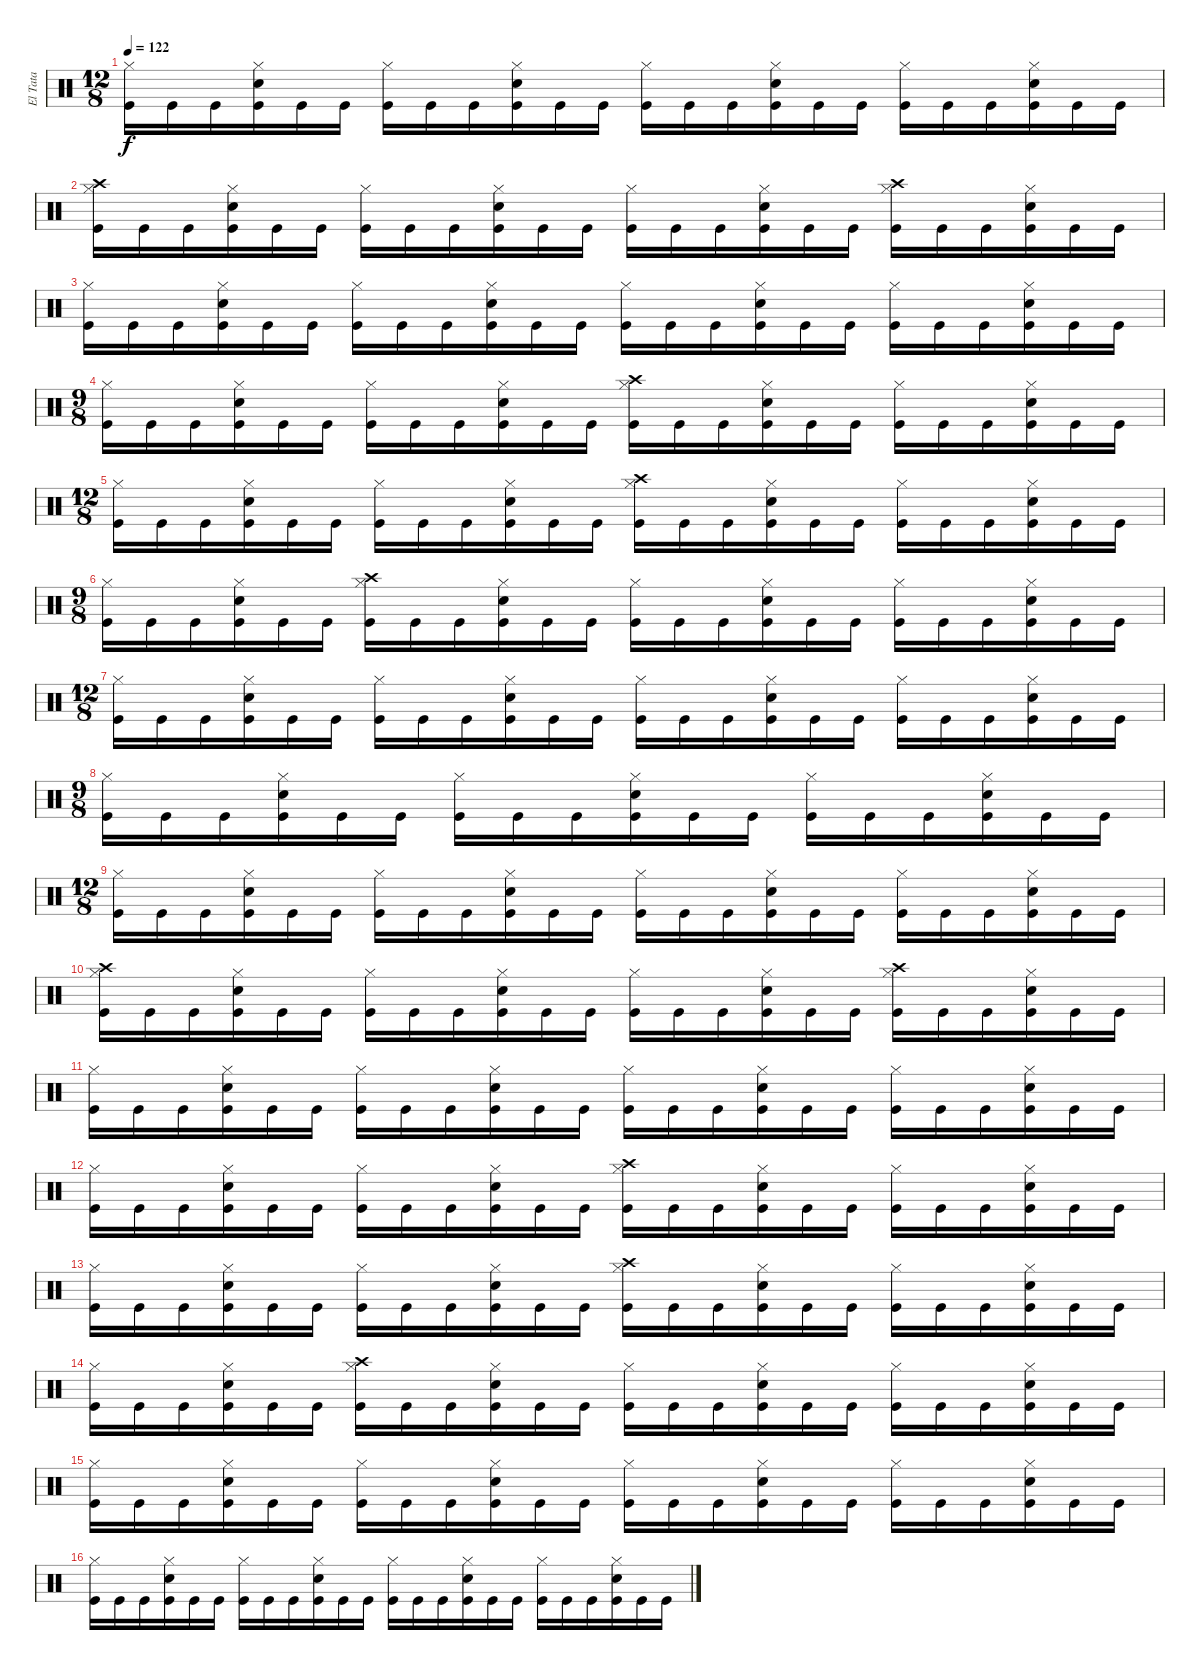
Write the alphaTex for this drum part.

\track ("El Tata" "El Tata") {instrument percussion}
\staff {score}
\articulation defaults
\ts (12 8)
\tempo 122
\clef neutral
\ks c
("Kick (hit)" "Hi-Hat (closed)").16{dy f} "Kick (hit)".16 "Kick (hit)".16 ("Kick (hit)" "Hi-Hat (closed)" "Electric Snare (hit)").16 "Kick (hit)".16 "Kick (hit)".16 ("Kick (hit)" "Hi-Hat (closed)").16 "Kick (hit)".16 "Kick (hit)".16 ("Kick (hit)" "Hi-Hat (closed)" "Electric Snare (hit)").16 "Kick (hit)".16 "Kick (hit)".16 ("Kick (hit)" "Hi-Hat (closed)").16 "Kick (hit)".16 "Kick (hit)".16 ("Kick (hit)" "Hi-Hat (closed)" "Electric Snare (hit)").16 "Kick (hit)".16 "Kick (hit)".16 ("Kick (hit)" "Hi-Hat (closed)").16 "Kick (hit)".16 "Kick (hit)".16 ("Kick (hit)" "Hi-Hat (closed)" "Electric Snare (hit)").16 "Kick (hit)".16 "Kick (hit)".16 |
("Kick (hit)" "Hi-Hat (closed)" "Crash high (hit)").16 "Kick (hit)".16 "Kick (hit)".16 ("Kick (hit)" "Hi-Hat (closed)" "Electric Snare (hit)").16 "Kick (hit)".16 "Kick (hit)".16 ("Kick (hit)" "Hi-Hat (closed)").16 "Kick (hit)".16 "Kick (hit)".16 ("Kick (hit)" "Hi-Hat (closed)" "Electric Snare (hit)").16 "Kick (hit)".16 "Kick (hit)".16 ("Kick (hit)" "Hi-Hat (closed)").16 "Kick (hit)".16 "Kick (hit)".16 ("Kick (hit)" "Hi-Hat (closed)" "Electric Snare (hit)").16 "Kick (hit)".16 "Kick (hit)".16 ("Kick (hit)" "Hi-Hat (closed)" "Crash high (hit)").16 "Kick (hit)".16 "Kick (hit)".16 ("Kick (hit)" "Hi-Hat (closed)" "Electric Snare (hit)").16 "Kick (hit)".16 "Kick (hit)".16 |
("Kick (hit)" "Hi-Hat (closed)").16 "Kick (hit)".16 "Kick (hit)".16 ("Kick (hit)" "Hi-Hat (closed)" "Electric Snare (hit)").16 "Kick (hit)".16 "Kick (hit)".16 ("Kick (hit)" "Hi-Hat (closed)").16 "Kick (hit)".16 "Kick (hit)".16 ("Kick (hit)" "Hi-Hat (closed)" "Electric Snare (hit)").16 "Kick (hit)".16 "Kick (hit)".16 ("Kick (hit)" "Hi-Hat (closed)").16 "Kick (hit)".16 "Kick (hit)".16 ("Kick (hit)" "Hi-Hat (closed)" "Electric Snare (hit)").16 "Kick (hit)".16 "Kick (hit)".16 ("Kick (hit)" "Hi-Hat (closed)").16 "Kick (hit)".16 "Kick (hit)".16 ("Kick (hit)" "Hi-Hat (closed)" "Electric Snare (hit)").16 "Kick (hit)".16 "Kick (hit)".16 |
\ts (9 8)
("Kick (hit)" "Hi-Hat (closed)").16 "Kick (hit)".16 "Kick (hit)".16 ("Kick (hit)" "Hi-Hat (closed)" "Electric Snare (hit)").16 "Kick (hit)".16 "Kick (hit)".16 ("Kick (hit)" "Hi-Hat (closed)").16 "Kick (hit)".16 "Kick (hit)".16 ("Kick (hit)" "Hi-Hat (closed)" "Electric Snare (hit)").16 "Kick (hit)".16 "Kick (hit)".16 ("Kick (hit)" "Hi-Hat (closed)" "Crash high (hit)").16 "Kick (hit)".16 "Kick (hit)".16 ("Kick (hit)" "Hi-Hat (closed)" "Electric Snare (hit)").16 "Kick (hit)".16 "Kick (hit)".16 ("Kick (hit)" "Hi-Hat (closed)").16 "Kick (hit)".16 "Kick (hit)".16 ("Kick (hit)" "Hi-Hat (closed)" "Electric Snare (hit)").16 "Kick (hit)".16 "Kick (hit)".16 |
\ts (12 8)
("Kick (hit)" "Hi-Hat (closed)").16 "Kick (hit)".16 "Kick (hit)".16 ("Kick (hit)" "Hi-Hat (closed)" "Electric Snare (hit)").16 "Kick (hit)".16 "Kick (hit)".16 ("Kick (hit)" "Hi-Hat (closed)").16 "Kick (hit)".16 "Kick (hit)".16 ("Kick (hit)" "Hi-Hat (closed)" "Electric Snare (hit)").16 "Kick (hit)".16 "Kick (hit)".16 ("Kick (hit)" "Hi-Hat (closed)" "Crash high (hit)").16 "Kick (hit)".16 "Kick (hit)".16 ("Kick (hit)" "Hi-Hat (closed)" "Electric Snare (hit)").16 "Kick (hit)".16 "Kick (hit)".16 ("Kick (hit)" "Hi-Hat (closed)").16 "Kick (hit)".16 "Kick (hit)".16 ("Kick (hit)" "Hi-Hat (closed)" "Electric Snare (hit)").16 "Kick (hit)".16 "Kick (hit)".16 |
\ts (9 8)
("Kick (hit)" "Hi-Hat (closed)").16 "Kick (hit)".16 "Kick (hit)".16 ("Kick (hit)" "Hi-Hat (closed)" "Electric Snare (hit)").16 "Kick (hit)".16 "Kick (hit)".16 ("Kick (hit)" "Hi-Hat (closed)" "Crash high (hit)").16 "Kick (hit)".16 "Kick (hit)".16 ("Kick (hit)" "Hi-Hat (closed)" "Electric Snare (hit)").16 "Kick (hit)".16 "Kick (hit)".16 ("Kick (hit)" "Hi-Hat (closed)").16 "Kick (hit)".16 "Kick (hit)".16 ("Kick (hit)" "Hi-Hat (closed)" "Electric Snare (hit)").16 "Kick (hit)".16 "Kick (hit)".16 ("Kick (hit)" "Hi-Hat (closed)").16 "Kick (hit)".16 "Kick (hit)".16 ("Kick (hit)" "Hi-Hat (closed)" "Electric Snare (hit)").16 "Kick (hit)".16 "Kick (hit)".16 |
\ts (12 8)
("Kick (hit)" "Hi-Hat (closed)").16 "Kick (hit)".16 "Kick (hit)".16 ("Kick (hit)" "Hi-Hat (closed)" "Electric Snare (hit)").16 "Kick (hit)".16 "Kick (hit)".16 ("Kick (hit)" "Hi-Hat (closed)").16 "Kick (hit)".16 "Kick (hit)".16 ("Kick (hit)" "Hi-Hat (closed)" "Electric Snare (hit)").16 "Kick (hit)".16 "Kick (hit)".16 ("Kick (hit)" "Hi-Hat (closed)").16 "Kick (hit)".16 "Kick (hit)".16 ("Kick (hit)" "Hi-Hat (closed)" "Electric Snare (hit)").16 "Kick (hit)".16 "Kick (hit)".16 ("Kick (hit)" "Hi-Hat (closed)").16 "Kick (hit)".16 "Kick (hit)".16 ("Kick (hit)" "Hi-Hat (closed)" "Electric Snare (hit)").16 "Kick (hit)".16 "Kick (hit)".16 |
\ts (9 8)
("Kick (hit)" "Hi-Hat (closed)").16 "Kick (hit)".16 "Kick (hit)".16 ("Kick (hit)" "Hi-Hat (closed)" "Electric Snare (hit)").16 "Kick (hit)".16 "Kick (hit)".16 ("Kick (hit)" "Hi-Hat (closed)").16 "Kick (hit)".16 "Kick (hit)".16 ("Kick (hit)" "Hi-Hat (closed)" "Electric Snare (hit)").16 "Kick (hit)".16 "Kick (hit)".16 ("Kick (hit)" "Hi-Hat (closed)").16 "Kick (hit)".16 "Kick (hit)".16 ("Kick (hit)" "Hi-Hat (closed)" "Electric Snare (hit)").16 "Kick (hit)".16 "Kick (hit)".16 |
\ts (12 8)
("Kick (hit)" "Hi-Hat (closed)").16 "Kick (hit)".16 "Kick (hit)".16 ("Kick (hit)" "Hi-Hat (closed)" "Electric Snare (hit)").16 "Kick (hit)".16 "Kick (hit)".16 ("Kick (hit)" "Hi-Hat (closed)").16 "Kick (hit)".16 "Kick (hit)".16 ("Kick (hit)" "Hi-Hat (closed)" "Electric Snare (hit)").16 "Kick (hit)".16 "Kick (hit)".16 ("Kick (hit)" "Hi-Hat (closed)").16 "Kick (hit)".16 "Kick (hit)".16 ("Kick (hit)" "Hi-Hat (closed)" "Electric Snare (hit)").16 "Kick (hit)".16 "Kick (hit)".16 ("Kick (hit)" "Hi-Hat (closed)").16 "Kick (hit)".16 "Kick (hit)".16 ("Kick (hit)" "Hi-Hat (closed)" "Electric Snare (hit)").16 "Kick (hit)".16 "Kick (hit)".16 |
("Kick (hit)" "Hi-Hat (closed)" "Crash high (hit)").16 "Kick (hit)".16 "Kick (hit)".16 ("Kick (hit)" "Hi-Hat (closed)" "Electric Snare (hit)").16 "Kick (hit)".16 "Kick (hit)".16 ("Kick (hit)" "Hi-Hat (closed)").16 "Kick (hit)".16 "Kick (hit)".16 ("Kick (hit)" "Hi-Hat (closed)" "Electric Snare (hit)").16 "Kick (hit)".16 "Kick (hit)".16 ("Kick (hit)" "Hi-Hat (closed)").16 "Kick (hit)".16 "Kick (hit)".16 ("Kick (hit)" "Hi-Hat (closed)" "Electric Snare (hit)").16 "Kick (hit)".16 "Kick (hit)".16 ("Kick (hit)" "Hi-Hat (closed)" "Crash high (hit)").16 "Kick (hit)".16 "Kick (hit)".16 ("Kick (hit)" "Hi-Hat (closed)" "Electric Snare (hit)").16 "Kick (hit)".16 "Kick (hit)".16 |
("Kick (hit)" "Hi-Hat (closed)").16 "Kick (hit)".16 "Kick (hit)".16 ("Kick (hit)" "Hi-Hat (closed)" "Electric Snare (hit)").16 "Kick (hit)".16 "Kick (hit)".16 ("Kick (hit)" "Hi-Hat (closed)").16 "Kick (hit)".16 "Kick (hit)".16 ("Kick (hit)" "Hi-Hat (closed)" "Electric Snare (hit)").16 "Kick (hit)".16 "Kick (hit)".16 ("Kick (hit)" "Hi-Hat (closed)").16 "Kick (hit)".16 "Kick (hit)".16 ("Kick (hit)" "Hi-Hat (closed)" "Electric Snare (hit)").16 "Kick (hit)".16 "Kick (hit)".16 ("Kick (hit)" "Hi-Hat (closed)").16 "Kick (hit)".16 "Kick (hit)".16 ("Kick (hit)" "Hi-Hat (closed)" "Electric Snare (hit)").16 "Kick (hit)".16 "Kick (hit)".16 |
("Kick (hit)" "Hi-Hat (closed)").16 "Kick (hit)".16 "Kick (hit)".16 ("Kick (hit)" "Hi-Hat (closed)" "Electric Snare (hit)").16 "Kick (hit)".16 "Kick (hit)".16 ("Kick (hit)" "Hi-Hat (closed)").16 "Kick (hit)".16 "Kick (hit)".16 ("Kick (hit)" "Hi-Hat (closed)" "Electric Snare (hit)").16 "Kick (hit)".16 "Kick (hit)".16 ("Kick (hit)" "Hi-Hat (closed)" "Crash high (hit)").16 "Kick (hit)".16 "Kick (hit)".16 ("Kick (hit)" "Hi-Hat (closed)" "Electric Snare (hit)").16 "Kick (hit)".16 "Kick (hit)".16 ("Kick (hit)" "Hi-Hat (closed)").16 "Kick (hit)".16 "Kick (hit)".16 ("Kick (hit)" "Hi-Hat (closed)" "Electric Snare (hit)").16 "Kick (hit)".16 "Kick (hit)".16 |
("Kick (hit)" "Hi-Hat (closed)").16 "Kick (hit)".16 "Kick (hit)".16 ("Kick (hit)" "Hi-Hat (closed)" "Electric Snare (hit)").16 "Kick (hit)".16 "Kick (hit)".16 ("Kick (hit)" "Hi-Hat (closed)").16 "Kick (hit)".16 "Kick (hit)".16 ("Kick (hit)" "Hi-Hat (closed)" "Electric Snare (hit)").16 "Kick (hit)".16 "Kick (hit)".16 ("Kick (hit)" "Hi-Hat (closed)" "Crash high (hit)").16 "Kick (hit)".16 "Kick (hit)".16 ("Kick (hit)" "Hi-Hat (closed)" "Electric Snare (hit)").16 "Kick (hit)".16 "Kick (hit)".16 ("Kick (hit)" "Hi-Hat (closed)").16 "Kick (hit)".16 "Kick (hit)".16 ("Kick (hit)" "Hi-Hat (closed)" "Electric Snare (hit)").16 "Kick (hit)".16 "Kick (hit)".16 |
("Kick (hit)" "Hi-Hat (closed)").16 "Kick (hit)".16 "Kick (hit)".16 ("Kick (hit)" "Hi-Hat (closed)" "Electric Snare (hit)").16 "Kick (hit)".16 "Kick (hit)".16 ("Kick (hit)" "Hi-Hat (closed)" "Crash high (hit)").16 "Kick (hit)".16 "Kick (hit)".16 ("Kick (hit)" "Hi-Hat (closed)" "Electric Snare (hit)").16 "Kick (hit)".16 "Kick (hit)".16 ("Kick (hit)" "Hi-Hat (closed)").16 "Kick (hit)".16 "Kick (hit)".16 ("Kick (hit)" "Hi-Hat (closed)" "Electric Snare (hit)").16 "Kick (hit)".16 "Kick (hit)".16 ("Kick (hit)" "Hi-Hat (closed)").16 "Kick (hit)".16 "Kick (hit)".16 ("Kick (hit)" "Hi-Hat (closed)" "Electric Snare (hit)").16 "Kick (hit)".16 "Kick (hit)".16 |
("Kick (hit)" "Hi-Hat (closed)").16 "Kick (hit)".16 "Kick (hit)".16 ("Kick (hit)" "Hi-Hat (closed)" "Electric Snare (hit)").16 "Kick (hit)".16 "Kick (hit)".16 ("Kick (hit)" "Hi-Hat (closed)").16 "Kick (hit)".16 "Kick (hit)".16 ("Kick (hit)" "Hi-Hat (closed)" "Electric Snare (hit)").16 "Kick (hit)".16 "Kick (hit)".16 ("Kick (hit)" "Hi-Hat (closed)").16 "Kick (hit)".16 "Kick (hit)".16 ("Kick (hit)" "Hi-Hat (closed)" "Electric Snare (hit)").16 "Kick (hit)".16 "Kick (hit)".16 ("Kick (hit)" "Hi-Hat (closed)").16 "Kick (hit)".16 "Kick (hit)".16 ("Kick (hit)" "Hi-Hat (closed)" "Electric Snare (hit)").16 "Kick (hit)".16 "Kick (hit)".16 |
("Kick (hit)" "Hi-Hat (closed)").16 "Kick (hit)".16 "Kick (hit)".16 ("Kick (hit)" "Hi-Hat (closed)" "Electric Snare (hit)").16 "Kick (hit)".16 "Kick (hit)".16 ("Kick (hit)" "Hi-Hat (closed)").16 "Kick (hit)".16 "Kick (hit)".16 ("Kick (hit)" "Hi-Hat (closed)" "Electric Snare (hit)").16 "Kick (hit)".16 "Kick (hit)".16 ("Kick (hit)" "Hi-Hat (closed)").16 "Kick (hit)".16 "Kick (hit)".16 ("Kick (hit)" "Hi-Hat (closed)" "Electric Snare (hit)").16 "Kick (hit)".16 "Kick (hit)".16 ("Kick (hit)" "Hi-Hat (closed)").16 "Kick (hit)".16 "Kick (hit)".16 ("Kick (hit)" "Hi-Hat (closed)" "Electric Snare (hit)").16 "Kick (hit)".16 "Kick (hit)".16
